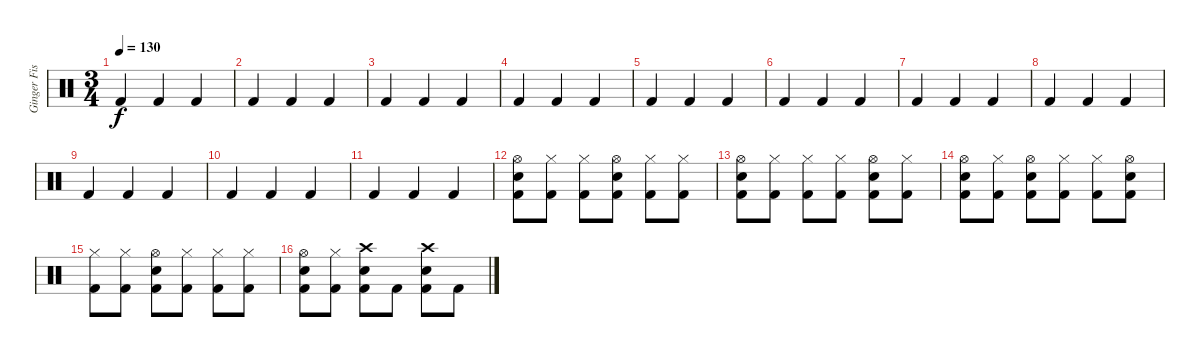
\track ("Ginger Fish" "Ginger Fis") {instrument percussion}
\staff {score}
\articulation defaults
\ts (3 4)
\tempo 130
\clef neutral
\ks c "Kick (hit) 2".4{dy f} "Kick (hit) 2".4 "Kick (hit) 2".4
|
"Kick (hit) 2".4 "Kick (hit) 2".4 "Kick (hit) 2".4 |
"Kick (hit) 2".4 "Kick (hit) 2".4 "Kick (hit) 2".4 |
"Kick (hit) 2".4 "Kick (hit) 2".4 "Kick (hit) 2".4 |
"Kick (hit) 2".4 "Kick (hit) 2".4 "Kick (hit) 2".4 |
"Kick (hit) 2".4 "Kick (hit) 2".4 "Kick (hit) 2".4 |
"Kick (hit) 2".4 "Kick (hit) 2".4 "Kick (hit) 2".4 |
"Kick (hit) 2".4 "Kick (hit) 2".4 "Kick (hit) 2".4 |
"Kick (hit) 2".4 "Kick (hit) 2".4 "Kick (hit) 2".4 |
"Kick (hit) 2".4 "Kick (hit) 2".4 "Kick (hit) 2".4 |
"Kick (hit) 2".4 "Kick (hit) 2".4 "Kick (hit) 2".4 |
("Hi-Hat (open)" "Snare (hit) 2" "Kick (hit) 2").8 ("Hi-Hat (closed)" "Kick (hit) 2").8 ("Hi-Hat (closed)" "Kick (hit) 2").8 ("Hi-Hat (open)" "Snare (hit) 2" "Kick (hit) 2").8 ("Hi-Hat (closed)" "Kick (hit) 2").8 ("Hi-Hat (closed)" "Kick (hit) 2").8 |
("Hi-Hat (open)" "Snare (hit) 2" "Kick (hit) 2").8 ("Hi-Hat (closed)" "Kick (hit) 2").8 ("Hi-Hat (closed)" "Kick (hit) 2").8 ("Hi-Hat (closed)" "Kick (hit) 2").8 ("Hi-Hat (open)" "Snare (hit) 2" "Kick (hit) 2").8 ("Hi-Hat (closed)" "Kick (hit) 2").8 |
("Hi-Hat (open)" "Snare (hit) 2" "Kick (hit) 2").8 ("Hi-Hat (closed)" "Kick (hit) 2").8 ("Hi-Hat (open)" "Snare (hit) 2" "Kick (hit) 2").8 ("Hi-Hat (closed)" "Kick (hit) 2").8 ("Hi-Hat (closed)" "Kick (hit) 2").8 ("Hi-Hat (open)" "Snare (hit) 2" "Kick (hit) 2").8 |
("Hi-Hat (closed)" "Kick (hit) 2").8 ("Hi-Hat (closed)" "Kick (hit) 2").8 ("Hi-Hat (open)" "Snare (hit) 2" "Kick (hit) 2").8 ("Hi-Hat (closed)" "Kick (hit) 2").8 ("Hi-Hat (closed)" "Kick (hit) 2").8 ("Hi-Hat (closed)" "Kick (hit) 2").8 |
("Hi-Hat (open)" "Snare (hit) 2" "Kick (hit) 2").8 ("Hi-Hat (closed)" "Kick (hit) 2").8 ("Crash high (hit)" "Snare (hit) 2" "Kick (hit) 2").8 "Kick (hit) 2".8 ("Crash high (hit)" "Snare (hit) 2" "Kick (hit) 2").8 "Kick (hit) 2".8
